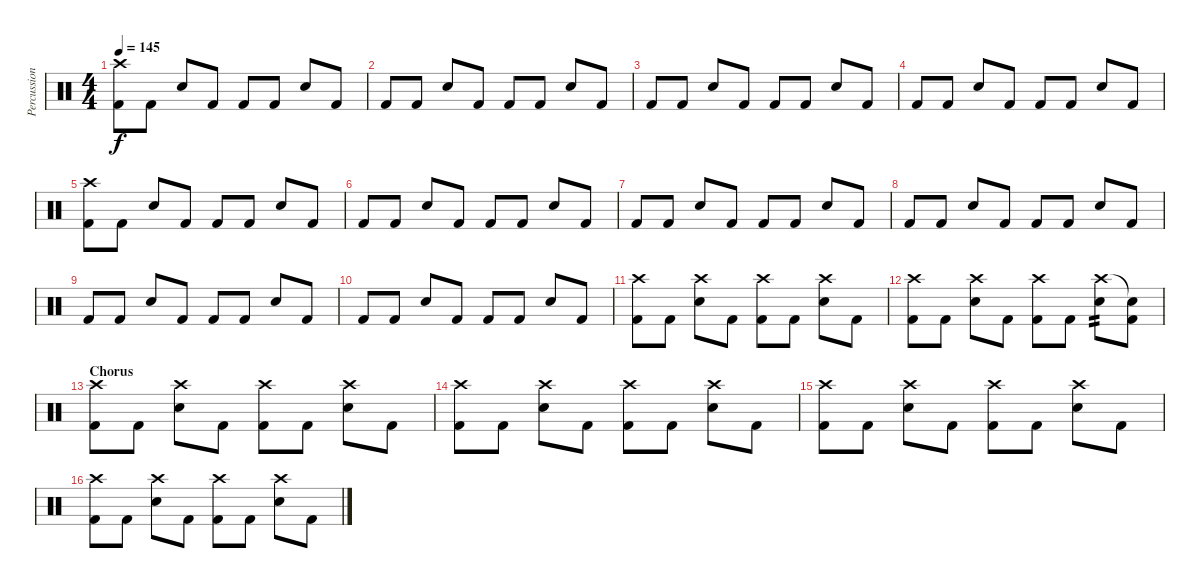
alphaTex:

\track ("Percussion" "Percussion") {instrument percussion}
\staff {score}
\articulation defaults
\ts (4 4)
\tempo 145
\clef neutral
\ks c
("Crash high (hit)" "Kick (hit) 2").8{dy f} "Kick (hit) 2".8 "Electric Snare (hit)".8 "Kick (hit) 2".8 "Kick (hit) 2".8 "Kick (hit) 2".8 "Electric Snare (hit)".8 "Kick (hit) 2".8 |
"Kick (hit) 2".8 "Kick (hit) 2".8 "Electric Snare (hit)".8 "Kick (hit) 2".8 "Kick (hit) 2".8 "Kick (hit) 2".8 "Electric Snare (hit)".8 "Kick (hit) 2".8 |
"Kick (hit) 2".8 "Kick (hit) 2".8 "Electric Snare (hit)".8 "Kick (hit) 2".8 "Kick (hit) 2".8 "Kick (hit) 2".8 "Electric Snare (hit)".8 "Kick (hit) 2".8 |
"Kick (hit) 2".8 "Kick (hit) 2".8 "Electric Snare (hit)".8 "Kick (hit) 2".8 "Kick (hit) 2".8 "Kick (hit) 2".8 "Electric Snare (hit)".8 "Kick (hit) 2".8 |
("Crash high (hit)" "Kick (hit) 2").8 "Kick (hit) 2".8 "Electric Snare (hit)".8 "Kick (hit) 2".8 "Kick (hit) 2".8 "Kick (hit) 2".8 "Electric Snare (hit)".8 "Kick (hit) 2".8 |
"Kick (hit) 2".8 "Kick (hit) 2".8 "Electric Snare (hit)".8 "Kick (hit) 2".8 "Kick (hit) 2".8 "Kick (hit) 2".8 "Electric Snare (hit)".8 "Kick (hit) 2".8 |
"Kick (hit) 2".8 "Kick (hit) 2".8 "Electric Snare (hit)".8 "Kick (hit) 2".8 "Kick (hit) 2".8 "Kick (hit) 2".8 "Electric Snare (hit)".8 "Kick (hit) 2".8 |
"Kick (hit) 2".8 "Kick (hit) 2".8 "Electric Snare (hit)".8 "Kick (hit) 2".8 "Kick (hit) 2".8 "Kick (hit) 2".8 "Electric Snare (hit)".8 "Kick (hit) 2".8 |
"Kick (hit) 2".8 "Kick (hit) 2".8 "Electric Snare (hit)".8 "Kick (hit) 2".8 "Kick (hit) 2".8 "Kick (hit) 2".8 "Electric Snare (hit)".8 "Kick (hit) 2".8 |
"Kick (hit) 2".8 "Kick (hit) 2".8 "Electric Snare (hit)".8 "Kick (hit) 2".8 "Kick (hit) 2".8 "Kick (hit) 2".8 "Electric Snare (hit)".8 "Kick (hit) 2".8 |
("Crash high (hit)" "Kick (hit) 2").8 "Kick (hit) 2".8 ("Crash high (hit)" "Electric Snare (hit)").8 "Kick (hit) 2".8 ("Crash high (hit)" "Kick (hit) 2").8 "Kick (hit) 2".8 ("Crash high (hit)" "Electric Snare (hit)").8 "Kick (hit) 2".8 |
("Crash high (hit)" "Kick (hit) 2").8 "Kick (hit) 2".8 ("Crash high (hit)" "Electric Snare (hit)").8 "Kick (hit) 2".8 ("Crash high (hit)" "Kick (hit) 2").8 "Kick (hit) 2".8 ("Crash high (hit)" "Electric Snare (hit)").8{tp 2} ("Snare (hit)"{t} "Kick (hit) 2").8 |
\section ("" "Chorus")
("Crash high (hit)" "Kick (hit) 2").8 "Kick (hit) 2".8 ("Crash high (hit)" "Electric Snare (hit)").8 "Kick (hit) 2".8 ("Crash high (hit)" "Kick (hit) 2").8 "Kick (hit) 2".8 ("Crash high (hit)" "Electric Snare (hit)").8 "Kick (hit) 2".8 |
("Crash high (hit)" "Kick (hit) 2").8 "Kick (hit) 2".8 ("Crash high (hit)" "Electric Snare (hit)").8 "Kick (hit) 2".8 ("Crash high (hit)" "Kick (hit) 2").8 "Kick (hit) 2".8 ("Crash high (hit)" "Electric Snare (hit)").8 "Kick (hit) 2".8 |
("Crash high (hit)" "Kick (hit) 2").8 "Kick (hit) 2".8 ("Crash high (hit)" "Electric Snare (hit)").8 "Kick (hit) 2".8 ("Crash high (hit)" "Kick (hit) 2").8 "Kick (hit) 2".8 ("Crash high (hit)" "Electric Snare (hit)").8 "Kick (hit) 2".8 |
("Crash high (hit)" "Kick (hit) 2").8 "Kick (hit) 2".8 ("Crash high (hit)" "Electric Snare (hit)").8 "Kick (hit) 2".8 ("Crash high (hit)" "Kick (hit) 2").8 "Kick (hit) 2".8 ("Crash high (hit)" "Electric Snare (hit)").8 "Kick (hit) 2".8
